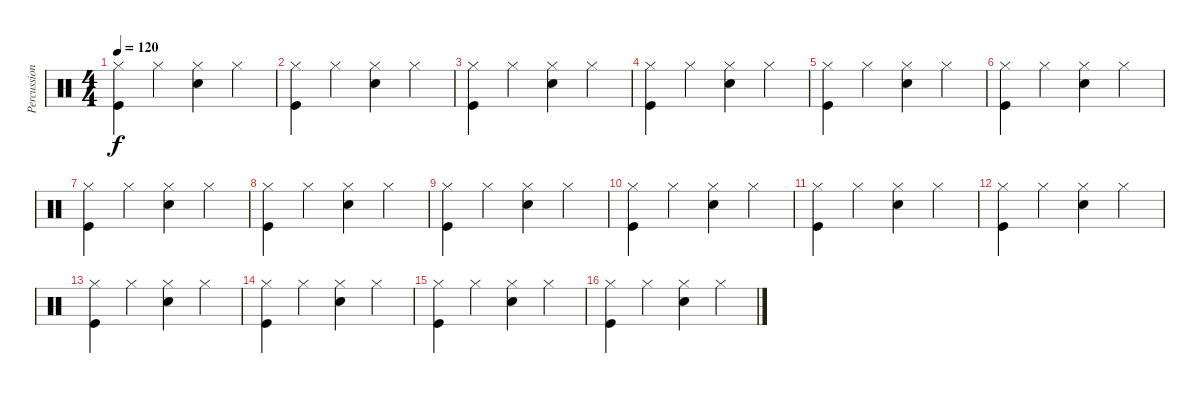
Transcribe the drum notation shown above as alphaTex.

\track ("Percussion" "Percussion") {instrument percussion}
\staff {score}
\articulation defaults
\ts (4 4)
\tempo 120
\clef neutral
\ks c
("Kick (hit)" "Hi-Hat (closed)").4{dy f} "Hi-Hat (closed)".4 ("Snare (hit) 2" "Hi-Hat (closed)").4 "Hi-Hat (closed)".4 |
("Kick (hit)" "Hi-Hat (closed)").4 "Hi-Hat (closed)".4 ("Snare (hit) 2" "Hi-Hat (closed)").4 "Hi-Hat (closed)".4 |
("Kick (hit)" "Hi-Hat (closed)").4 "Hi-Hat (closed)".4 ("Snare (hit) 2" "Hi-Hat (closed)").4 "Hi-Hat (closed)".4 |
("Kick (hit)" "Hi-Hat (closed)").4 "Hi-Hat (closed)".4 ("Snare (hit) 2" "Hi-Hat (closed)").4 "Hi-Hat (closed)".4 |
("Kick (hit)" "Hi-Hat (closed)").4 "Hi-Hat (closed)".4 ("Snare (hit) 2" "Hi-Hat (closed)").4 "Hi-Hat (closed)".4 |
("Kick (hit)" "Hi-Hat (closed)").4 "Hi-Hat (closed)".4 ("Snare (hit) 2" "Hi-Hat (closed)").4 "Hi-Hat (closed)".4 |
("Kick (hit)" "Hi-Hat (closed)").4 "Hi-Hat (closed)".4 ("Snare (hit) 2" "Hi-Hat (closed)").4 "Hi-Hat (closed)".4 |
("Kick (hit)" "Hi-Hat (closed)").4 "Hi-Hat (closed)".4 ("Snare (hit) 2" "Hi-Hat (closed)").4 "Hi-Hat (closed)".4 |
("Kick (hit)" "Hi-Hat (closed)").4 "Hi-Hat (closed)".4 ("Snare (hit) 2" "Hi-Hat (closed)").4 "Hi-Hat (closed)".4 |
("Kick (hit)" "Hi-Hat (closed)").4 "Hi-Hat (closed)".4 ("Snare (hit) 2" "Hi-Hat (closed)").4 "Hi-Hat (closed)".4 |
("Kick (hit)" "Hi-Hat (closed)").4 "Hi-Hat (closed)".4 ("Snare (hit) 2" "Hi-Hat (closed)").4 "Hi-Hat (closed)".4 |
("Kick (hit)" "Hi-Hat (closed)").4 "Hi-Hat (closed)".4 ("Snare (hit) 2" "Hi-Hat (closed)").4 "Hi-Hat (closed)".4 |
("Kick (hit)" "Hi-Hat (closed)").4 "Hi-Hat (closed)".4 ("Snare (hit) 2" "Hi-Hat (closed)").4 "Hi-Hat (closed)".4 |
("Kick (hit)" "Hi-Hat (closed)").4 "Hi-Hat (closed)".4 ("Snare (hit) 2" "Hi-Hat (closed)").4 "Hi-Hat (closed)".4 |
("Kick (hit)" "Hi-Hat (closed)").4 "Hi-Hat (closed)".4 ("Snare (hit) 2" "Hi-Hat (closed)").4 "Hi-Hat (closed)".4 |
("Kick (hit)" "Hi-Hat (closed)").4 "Hi-Hat (closed)".4 ("Snare (hit) 2" "Hi-Hat (closed)").4 "Hi-Hat (closed)".4
